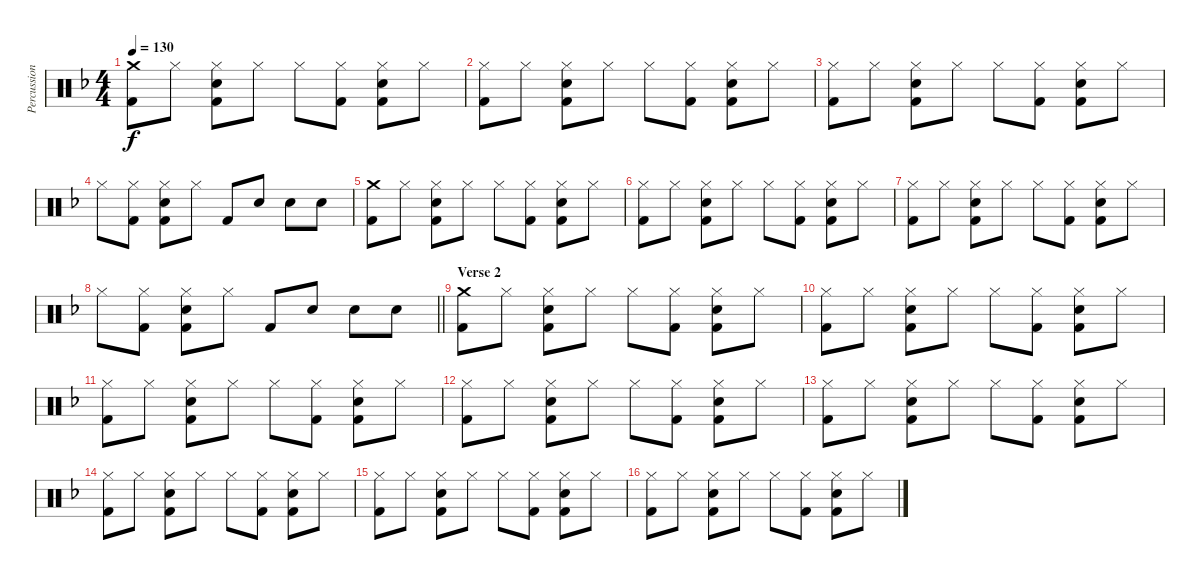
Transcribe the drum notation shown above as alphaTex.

\track ("Percussion" "Percussion") {instrument percussion}
\staff {score}
\articulation defaults
\ts (4 4)
\tempo 130
\clef neutral
\ks f
("Crash medium (hit)" "Kick (hit) 2").8{dy f} "Hi-Hat (closed)".8 ("Hi-Hat (closed)" "Snare (hit) 2" "Kick (hit) 2").8 "Hi-Hat (closed)".8 "Hi-Hat (closed)".8 ("Hi-Hat (closed)" "Kick (hit) 2").8 ("Hi-Hat (closed)" "Snare (hit) 2" "Kick (hit) 2").8 "Hi-Hat (closed)".8 |
("Hi-Hat (closed)" "Kick (hit) 2").8 "Hi-Hat (closed)".8 ("Hi-Hat (closed)" "Snare (hit) 2" "Kick (hit) 2").8 "Hi-Hat (closed)".8 "Hi-Hat (closed)".8 ("Hi-Hat (closed)" "Kick (hit) 2").8 ("Hi-Hat (closed)" "Snare (hit) 2" "Kick (hit) 2").8 "Hi-Hat (closed)".8 |
("Hi-Hat (closed)" "Kick (hit) 2").8 "Hi-Hat (closed)".8 ("Hi-Hat (closed)" "Snare (hit) 2" "Kick (hit) 2").8 "Hi-Hat (closed)".8 "Hi-Hat (closed)".8 ("Hi-Hat (closed)" "Kick (hit) 2").8 ("Hi-Hat (closed)" "Snare (hit) 2" "Kick (hit) 2").8 "Hi-Hat (closed)".8 |
"Hi-Hat (closed)".8 ("Hi-Hat (closed)" "Kick (hit) 2").8 ("Hi-Hat (closed)" "Snare (hit) 2" "Kick (hit) 2").8 "Hi-Hat (closed)".8 "Kick (hit) 2".8 "Snare (hit) 2".8 "Snare (hit) 2".8 "Snare (hit) 2".8 |
("Crash medium (hit)" "Kick (hit) 2").8 "Hi-Hat (closed)".8 ("Hi-Hat (closed)" "Snare (hit) 2" "Kick (hit) 2").8 "Hi-Hat (closed)".8 "Hi-Hat (closed)".8 ("Hi-Hat (closed)" "Kick (hit) 2").8 ("Hi-Hat (closed)" "Snare (hit) 2" "Kick (hit) 2").8 "Hi-Hat (closed)".8 |
("Hi-Hat (closed)" "Kick (hit) 2").8 "Hi-Hat (closed)".8 ("Hi-Hat (closed)" "Snare (hit) 2" "Kick (hit) 2").8 "Hi-Hat (closed)".8 "Hi-Hat (closed)".8 ("Hi-Hat (closed)" "Kick (hit) 2").8 ("Hi-Hat (closed)" "Snare (hit) 2" "Kick (hit) 2").8 "Hi-Hat (closed)".8 |
("Hi-Hat (closed)" "Kick (hit) 2").8 "Hi-Hat (closed)".8 ("Hi-Hat (closed)" "Snare (hit) 2" "Kick (hit) 2").8 "Hi-Hat (closed)".8 "Hi-Hat (closed)".8 ("Hi-Hat (closed)" "Kick (hit) 2").8 ("Hi-Hat (closed)" "Snare (hit) 2" "Kick (hit) 2").8 "Hi-Hat (closed)".8 |
\barLineRight lightlight "Hi-Hat (closed)".8
("Hi-Hat (closed)" "Kick (hit) 2").8 ("Hi-Hat (closed)" "Snare (hit) 2" "Kick (hit) 2").8 "Hi-Hat (closed)".8 "Kick (hit) 2".8 "Snare (hit) 2".8 "Snare (hit) 2".8 "Snare (hit) 2".8 |
\section ("" "Verse 2")
("Crash medium (hit)" "Kick (hit) 2").8 "Hi-Hat (closed)".8 ("Hi-Hat (closed)" "Snare (hit) 2" "Kick (hit) 2").8 "Hi-Hat (closed)".8 "Hi-Hat (closed)".8 ("Hi-Hat (closed)" "Kick (hit) 2").8 ("Hi-Hat (closed)" "Snare (hit) 2" "Kick (hit) 2").8 "Hi-Hat (closed)".8 |
("Hi-Hat (closed)" "Kick (hit) 2").8 "Hi-Hat (closed)".8 ("Hi-Hat (closed)" "Snare (hit) 2" "Kick (hit) 2").8 "Hi-Hat (closed)".8 "Hi-Hat (closed)".8 ("Hi-Hat (closed)" "Kick (hit) 2").8 ("Hi-Hat (closed)" "Snare (hit) 2" "Kick (hit) 2").8 "Hi-Hat (closed)".8 |
("Hi-Hat (closed)" "Kick (hit) 2").8 "Hi-Hat (closed)".8 ("Hi-Hat (closed)" "Snare (hit) 2" "Kick (hit) 2").8 "Hi-Hat (closed)".8 "Hi-Hat (closed)".8 ("Hi-Hat (closed)" "Kick (hit) 2").8 ("Hi-Hat (closed)" "Snare (hit) 2" "Kick (hit) 2").8 "Hi-Hat (closed)".8 |
("Hi-Hat (closed)" "Kick (hit) 2").8 "Hi-Hat (closed)".8 ("Hi-Hat (closed)" "Snare (hit) 2" "Kick (hit) 2").8 "Hi-Hat (closed)".8 "Hi-Hat (closed)".8 ("Hi-Hat (closed)" "Kick (hit) 2").8 ("Hi-Hat (closed)" "Snare (hit) 2" "Kick (hit) 2").8 "Hi-Hat (closed)".8 |
("Hi-Hat (closed)" "Kick (hit) 2").8 "Hi-Hat (closed)".8 ("Hi-Hat (closed)" "Snare (hit) 2" "Kick (hit) 2").8 "Hi-Hat (closed)".8 "Hi-Hat (closed)".8 ("Hi-Hat (closed)" "Kick (hit) 2").8 ("Hi-Hat (closed)" "Snare (hit) 2" "Kick (hit) 2").8 "Hi-Hat (closed)".8 |
("Hi-Hat (closed)" "Kick (hit) 2").8 "Hi-Hat (closed)".8 ("Hi-Hat (closed)" "Snare (hit) 2" "Kick (hit) 2").8 "Hi-Hat (closed)".8 "Hi-Hat (closed)".8 ("Hi-Hat (closed)" "Kick (hit) 2").8 ("Hi-Hat (closed)" "Snare (hit) 2" "Kick (hit) 2").8 "Hi-Hat (closed)".8 |
("Hi-Hat (closed)" "Kick (hit) 2").8 "Hi-Hat (closed)".8 ("Hi-Hat (closed)" "Snare (hit) 2" "Kick (hit) 2").8 "Hi-Hat (closed)".8 "Hi-Hat (closed)".8 ("Hi-Hat (closed)" "Kick (hit) 2").8 ("Hi-Hat (closed)" "Snare (hit) 2" "Kick (hit) 2").8 "Hi-Hat (closed)".8 |
("Hi-Hat (closed)" "Kick (hit) 2").8 "Hi-Hat (closed)".8 ("Hi-Hat (closed)" "Snare (hit) 2" "Kick (hit) 2").8 "Hi-Hat (closed)".8 "Hi-Hat (closed)".8 ("Hi-Hat (closed)" "Kick (hit) 2").8 ("Hi-Hat (closed)" "Snare (hit) 2" "Kick (hit) 2").8 "Hi-Hat (closed)".8
